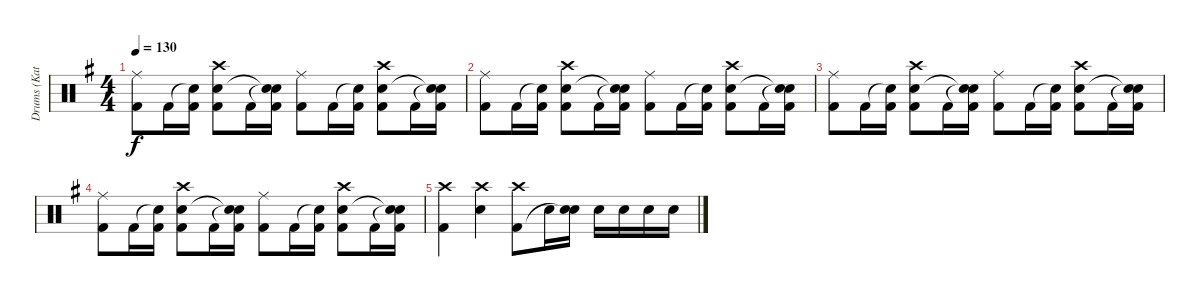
\track ("Drums (Katsuji)" "Drums (Kat") {instrument percussion}
\staff {score}
\articulation defaults
\ts (4 4)
\tempo 130
\clef neutral
\ks g
("Ride (middle)" "Kick (hit) 2").8{dy f} "Kick (hit) 2".16 ("Snare (hit)"{t} "Kick (hit) 2").16 ("Crash high (hit)" "Snare (hit) 2" "Kick (hit) 2").8 "Kick (hit) 2".16 ("Snare (hit)"{t} "Snare (hit)"{t} "Kick (hit) 2").16 ("Ride (middle)" "Kick (hit) 2").8 "Kick (hit) 2".16 ("Snare (hit)"{t} "Kick (hit) 2").16 ("Crash high (hit)" "Snare (hit) 2" "Kick (hit) 2").8 "Kick (hit) 2".16 ("Snare (hit)"{t} "Snare (hit)"{t} "Kick (hit) 2").16 |
("Ride (middle)" "Kick (hit) 2").8 "Kick (hit) 2".16 ("Snare (hit)"{t} "Kick (hit) 2").16 ("Crash high (hit)" "Snare (hit) 2" "Kick (hit) 2").8 "Kick (hit) 2".16 ("Snare (hit)"{t} "Snare (hit)"{t} "Kick (hit) 2").16 ("Ride (middle)" "Kick (hit) 2").8 "Kick (hit) 2".16 ("Snare (hit)"{t} "Kick (hit) 2").16 ("Crash high (hit)" "Snare (hit) 2" "Kick (hit) 2").8 "Kick (hit) 2".16 ("Snare (hit)"{t} "Snare (hit)"{t} "Kick (hit) 2").16 |
("Ride (middle)" "Kick (hit) 2").8 "Kick (hit) 2".16 ("Snare (hit)"{t} "Kick (hit) 2").16 ("Crash high (hit)" "Snare (hit) 2" "Kick (hit) 2").8 "Kick (hit) 2".16 ("Snare (hit)"{t} "Snare (hit)"{t} "Kick (hit) 2").16 ("Ride (middle)" "Kick (hit) 2").8 "Kick (hit) 2".16 ("Snare (hit)"{t} "Kick (hit) 2").16 ("Crash high (hit)" "Snare (hit) 2" "Kick (hit) 2").8 "Kick (hit) 2".16 ("Snare (hit)"{t} "Snare (hit)"{t} "Kick (hit) 2").16 |
("Ride (middle)" "Kick (hit) 2").8 "Kick (hit) 2".16 ("Snare (hit)"{t} "Kick (hit) 2").16 ("Crash high (hit)" "Snare (hit) 2" "Kick (hit) 2").8 "Kick (hit) 2".16 ("Snare (hit)"{t} "Snare (hit)"{t} "Kick (hit) 2").16 ("Ride (middle)" "Kick (hit) 2").8 "Kick (hit) 2".16 ("Snare (hit)"{t} "Kick (hit) 2").16 ("Crash high (hit)" "Snare (hit) 2" "Kick (hit) 2").8 "Kick (hit) 2".16 ("Snare (hit)"{t} "Snare (hit)"{t} "Kick (hit) 2").16 |
("Crash high (hit)" "Kick (hit) 2").4 ("Crash high (hit)" "Snare (hit) 2").4 ("Crash high (hit)" "Kick (hit) 2").8 "Snare (hit) 2".16 ("Snare (hit) 2" "Snare (hit)"{t}).16 "Snare (hit) 2".16 "Snare (hit) 2".16 "Snare (hit) 2".16 "Snare (hit) 2".16
